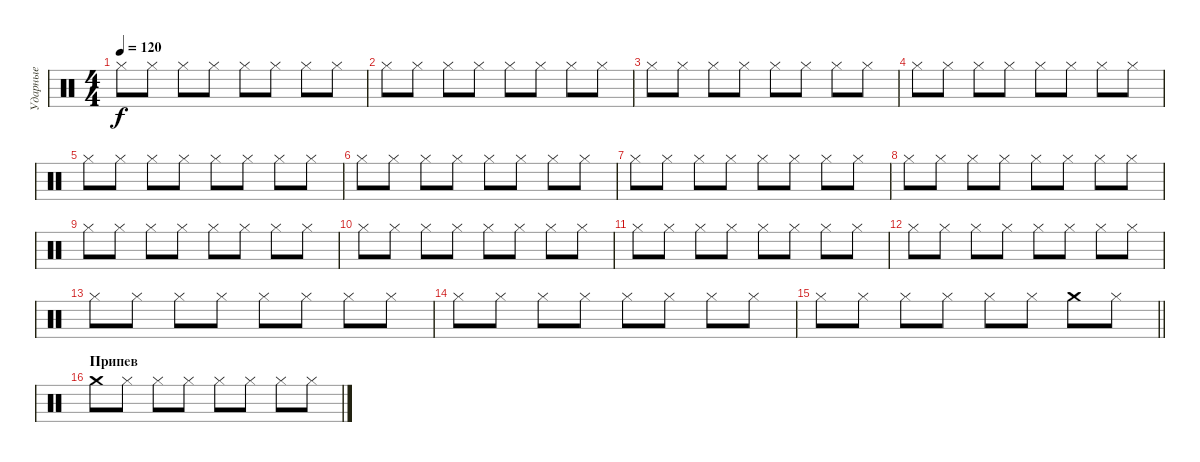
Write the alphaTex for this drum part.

\track ("Ударные" "Ударные") {instrument percussion}
\staff {score}
\articulation defaults
\ts (4 4)
\tempo 120
\clef neutral
\ks c "Hi-Hat (closed)".8{dy f} "Hi-Hat (closed)".8 "Hi-Hat (closed)".8 "Hi-Hat (closed)".8 "Hi-Hat (closed)".8 "Hi-Hat (closed)".8 "Hi-Hat (closed)".8 "Hi-Hat (closed)".8
|
"Hi-Hat (closed)".8 "Hi-Hat (closed)".8 "Hi-Hat (closed)".8 "Hi-Hat (closed)".8 "Hi-Hat (closed)".8 "Hi-Hat (closed)".8 "Hi-Hat (closed)".8 "Hi-Hat (closed)".8 |
"Hi-Hat (closed)".8 "Hi-Hat (closed)".8 "Hi-Hat (closed)".8 "Hi-Hat (closed)".8 "Hi-Hat (closed)".8 "Hi-Hat (closed)".8 "Hi-Hat (closed)".8 "Hi-Hat (closed)".8 |
"Hi-Hat (closed)".8 "Hi-Hat (closed)".8 "Hi-Hat (closed)".8 "Hi-Hat (closed)".8 "Hi-Hat (closed)".8 "Hi-Hat (closed)".8 "Hi-Hat (closed)".8 "Hi-Hat (closed)".8 |
"Hi-Hat (closed)".8 "Hi-Hat (closed)".8 "Hi-Hat (closed)".8 "Hi-Hat (closed)".8 "Hi-Hat (closed)".8 "Hi-Hat (closed)".8 "Hi-Hat (closed)".8 "Hi-Hat (closed)".8 |
"Hi-Hat (closed)".8 "Hi-Hat (closed)".8 "Hi-Hat (closed)".8 "Hi-Hat (closed)".8 "Hi-Hat (closed)".8 "Hi-Hat (closed)".8 "Hi-Hat (closed)".8 "Hi-Hat (closed)".8 |
"Hi-Hat (closed)".8 "Hi-Hat (closed)".8 "Hi-Hat (closed)".8 "Hi-Hat (closed)".8 "Hi-Hat (closed)".8 "Hi-Hat (closed)".8 "Hi-Hat (closed)".8 "Hi-Hat (closed)".8 |
"Hi-Hat (closed)".8 "Hi-Hat (closed)".8 "Hi-Hat (closed)".8 "Hi-Hat (closed)".8 "Hi-Hat (closed)".8 "Hi-Hat (closed)".8 "Hi-Hat (closed)".8 "Hi-Hat (closed)".8 |
"Hi-Hat (closed)".8 "Hi-Hat (closed)".8 "Hi-Hat (closed)".8 "Hi-Hat (closed)".8 "Hi-Hat (closed)".8 "Hi-Hat (closed)".8 "Hi-Hat (closed)".8 "Hi-Hat (closed)".8 |
"Hi-Hat (closed)".8 "Hi-Hat (closed)".8 "Hi-Hat (closed)".8 "Hi-Hat (closed)".8 "Hi-Hat (closed)".8 "Hi-Hat (closed)".8 "Hi-Hat (closed)".8 "Hi-Hat (closed)".8 |
"Hi-Hat (closed)".8 "Hi-Hat (closed)".8 "Hi-Hat (closed)".8 "Hi-Hat (closed)".8 "Hi-Hat (closed)".8 "Hi-Hat (closed)".8 "Hi-Hat (closed)".8 "Hi-Hat (closed)".8 |
"Hi-Hat (closed)".8 "Hi-Hat (closed)".8 "Hi-Hat (closed)".8 "Hi-Hat (closed)".8 "Hi-Hat (closed)".8 "Hi-Hat (closed)".8 "Hi-Hat (closed)".8 "Hi-Hat (closed)".8 |
"Hi-Hat (closed)".8 "Hi-Hat (closed)".8 "Hi-Hat (closed)".8 "Hi-Hat (closed)".8 "Hi-Hat (closed)".8 "Hi-Hat (closed)".8 "Hi-Hat (closed)".8 "Hi-Hat (closed)".8 |
"Hi-Hat (closed)".8 "Hi-Hat (closed)".8 "Hi-Hat (closed)".8 "Hi-Hat (closed)".8 "Hi-Hat (closed)".8 "Hi-Hat (closed)".8 "Hi-Hat (closed)".8 "Hi-Hat (closed)".8 |
\barLineRight lightlight "Hi-Hat (closed)".8 "Hi-Hat (closed)".8 "Hi-Hat (closed)".8 "Hi-Hat (closed)".8 "Hi-Hat (closed)".8 "Hi-Hat (closed)".8 "Crash medium (hit)".8 "Hi-Hat (closed)".8
|
\section ("" "Припев")
"Crash medium (hit)".8 "Hi-Hat (closed)".8 "Hi-Hat (closed)".8 "Hi-Hat (closed)".8 "Hi-Hat (closed)".8 "Hi-Hat (closed)".8 "Hi-Hat (closed)".8 "Hi-Hat (closed)".8
